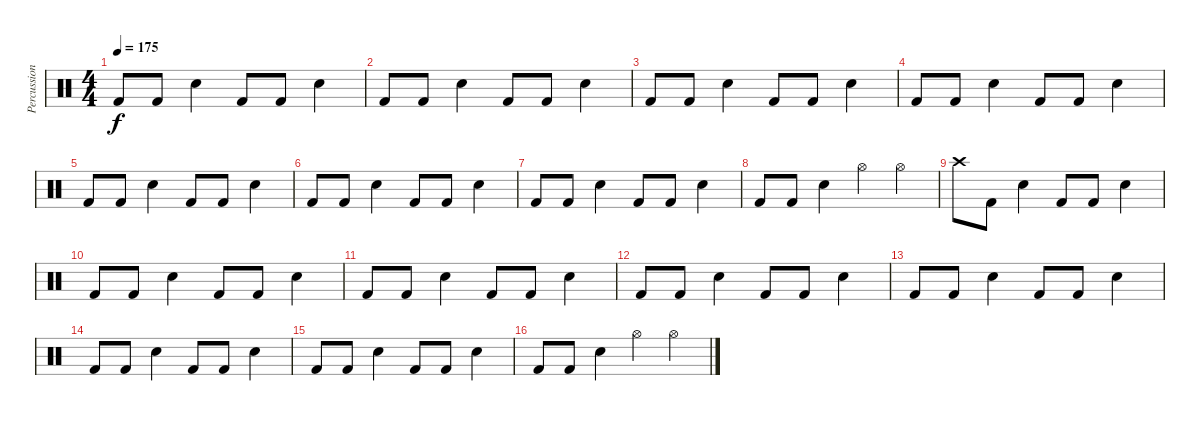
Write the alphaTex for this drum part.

\track ("Percussion" "Percussion") {instrument percussion}
\staff {score}
\articulation defaults
\ts (4 4)
\tempo 175
\clef neutral
\ks c "Kick (hit) 2".8{dy f} "Kick (hit) 2".8 "Snare (hit) 2".4 "Kick (hit) 2".8 "Kick (hit) 2".8 "Snare (hit) 2".4
|
"Kick (hit) 2".8 "Kick (hit) 2".8 "Snare (hit) 2".4 "Kick (hit) 2".8 "Kick (hit) 2".8 "Snare (hit) 2".4 |
"Kick (hit) 2".8 "Kick (hit) 2".8 "Snare (hit) 2".4 "Kick (hit) 2".8 "Kick (hit) 2".8 "Snare (hit) 2".4 |
"Kick (hit) 2".8 "Kick (hit) 2".8 "Snare (hit) 2".4 "Kick (hit) 2".8 "Kick (hit) 2".8 "Snare (hit) 2".4 |
"Kick (hit) 2".8 "Kick (hit) 2".8 "Snare (hit) 2".4 "Kick (hit) 2".8 "Kick (hit) 2".8 "Snare (hit) 2".4 |
"Kick (hit) 2".8 "Kick (hit) 2".8 "Snare (hit) 2".4 "Kick (hit) 2".8 "Kick (hit) 2".8 "Snare (hit) 2".4 |
"Kick (hit) 2".8 "Kick (hit) 2".8 "Snare (hit) 2".4 "Kick (hit) 2".8 "Kick (hit) 2".8 "Snare (hit) 2".4 |
"Kick (hit) 2".8 "Kick (hit) 2".8 "Snare (hit) 2".4 "Hi-Hat (open)".4 "Hi-Hat (open)".4 |
"Crash high (hit)".8 "Kick (hit) 2".8 "Snare (hit) 2".4 "Kick (hit) 2".8 "Kick (hit) 2".8 "Snare (hit) 2".4 |
"Kick (hit) 2".8 "Kick (hit) 2".8 "Snare (hit) 2".4 "Kick (hit) 2".8 "Kick (hit) 2".8 "Snare (hit) 2".4 |
"Kick (hit) 2".8 "Kick (hit) 2".8 "Snare (hit) 2".4 "Kick (hit) 2".8 "Kick (hit) 2".8 "Snare (hit) 2".4 |
"Kick (hit) 2".8 "Kick (hit) 2".8 "Snare (hit) 2".4 "Kick (hit) 2".8 "Kick (hit) 2".8 "Snare (hit) 2".4 |
"Kick (hit) 2".8 "Kick (hit) 2".8 "Snare (hit) 2".4 "Kick (hit) 2".8 "Kick (hit) 2".8 "Snare (hit) 2".4 |
"Kick (hit) 2".8 "Kick (hit) 2".8 "Snare (hit) 2".4 "Kick (hit) 2".8 "Kick (hit) 2".8 "Snare (hit) 2".4 |
"Kick (hit) 2".8 "Kick (hit) 2".8 "Snare (hit) 2".4 "Kick (hit) 2".8 "Kick (hit) 2".8 "Snare (hit) 2".4 |
"Kick (hit) 2".8 "Kick (hit) 2".8 "Snare (hit) 2".4 "Hi-Hat (open)".4 "Hi-Hat (open)".4
